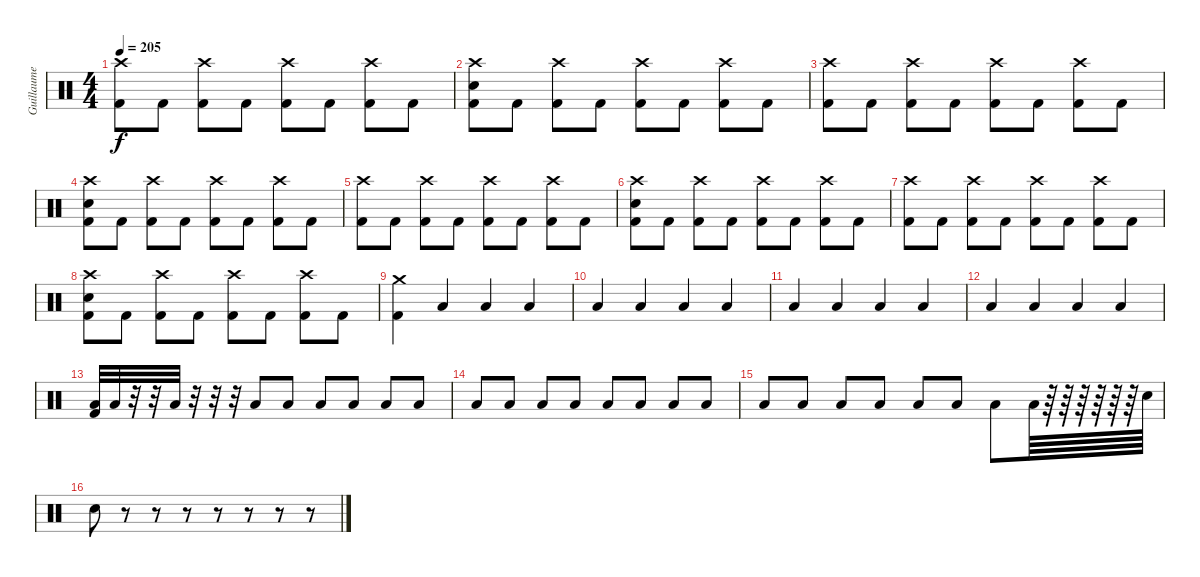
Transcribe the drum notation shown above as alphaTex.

\track ("Guillaume" "Guillaume") {instrument percussion}
\staff {score}
\articulation defaults
\ts (4 4)
\tempo 205
\clef neutral
\ks c
("Crash high (hit)" "Kick (hit) 2").8{dy f} "Kick (hit) 2".8 ("Crash high (hit)" "Kick (hit) 2").8 "Kick (hit) 2".8 ("Crash high (hit)" "Kick (hit) 2").8 "Kick (hit) 2".8 ("Crash high (hit)" "Kick (hit) 2").8 "Kick (hit) 2".8 |
("Crash high (hit)" "Snare (hit) 2" "Kick (hit) 2").8 "Kick (hit) 2".8 ("Crash high (hit)" "Kick (hit) 2").8 "Kick (hit) 2".8 ("Crash high (hit)" "Kick (hit) 2").8 "Kick (hit) 2".8 ("Crash high (hit)" "Kick (hit) 2").8 "Kick (hit) 2".8 |
("Crash high (hit)" "Kick (hit) 2").8 "Kick (hit) 2".8 ("Crash high (hit)" "Kick (hit) 2").8 "Kick (hit) 2".8 ("Crash high (hit)" "Kick (hit) 2").8 "Kick (hit) 2".8 ("Crash high (hit)" "Kick (hit) 2").8 "Kick (hit) 2".8 |
("Crash high (hit)" "Snare (hit) 2" "Kick (hit) 2").8 "Kick (hit) 2".8 ("Crash high (hit)" "Kick (hit) 2").8 "Kick (hit) 2".8 ("Crash high (hit)" "Kick (hit) 2").8 "Kick (hit) 2".8 ("Crash high (hit)" "Kick (hit) 2").8 "Kick (hit) 2".8 |
("Crash high (hit)" "Kick (hit) 2").8 "Kick (hit) 2".8 ("Crash high (hit)" "Kick (hit) 2").8 "Kick (hit) 2".8 ("Crash high (hit)" "Kick (hit) 2").8 "Kick (hit) 2".8 ("Crash high (hit)" "Kick (hit) 2").8 "Kick (hit) 2".8 |
("Crash high (hit)" "Snare (hit) 2" "Kick (hit) 2").8 "Kick (hit) 2".8 ("Crash high (hit)" "Kick (hit) 2").8 "Kick (hit) 2".8 ("Crash high (hit)" "Kick (hit) 2").8 "Kick (hit) 2".8 ("Crash high (hit)" "Kick (hit) 2").8 "Kick (hit) 2".8 |
("Crash high (hit)" "Kick (hit) 2").8 "Kick (hit) 2".8 ("Crash high (hit)" "Kick (hit) 2").8 "Kick (hit) 2".8 ("Crash high (hit)" "Kick (hit) 2").8 "Kick (hit) 2".8 ("Crash high (hit)" "Kick (hit) 2").8 "Kick (hit) 2".8 |
("Crash high (hit)" "Snare (hit) 2" "Kick (hit) 2").8 "Kick (hit) 2".8 ("Crash high (hit)" "Kick (hit) 2").8 "Kick (hit) 2".8 ("Crash high (hit)" "Kick (hit) 2").8 "Kick (hit) 2".8 ("Crash high (hit)" "Kick (hit) 2").8 "Kick (hit) 2".8 |
("Crash medium (hit)" "Kick (hit) 2").4 "Low Floor Tom (hit)".4 "Low Floor Tom (hit)".4 "Low Floor Tom (hit)".4 |
"Low Floor Tom (hit)".4 "Low Floor Tom (hit)".4 "Low Floor Tom (hit)".4 "Low Floor Tom (hit)".4 |
"Low Floor Tom (hit)".4 "Low Floor Tom (hit)".4 "Low Floor Tom (hit)".4 "Low Floor Tom (hit)".4 |
"Low Floor Tom (hit)".4 "Low Floor Tom (hit)".4 "Low Floor Tom (hit)".4 "Low Floor Tom (hit)".4 |
("Low Floor Tom (hit)" "Kick (hit) 2").32 "Low Floor Tom (hit)".32 r.32 r.32 "Low Floor Tom (hit)".32 r.32 r.32 r.32 "Low Floor Tom (hit)".8 "Low Floor Tom (hit)".8 "Low Floor Tom (hit)".8 "Low Floor Tom (hit)".8 "Low Floor Tom (hit)".8 "Low Floor Tom (hit)".8 |
"Low Floor Tom (hit)".8 "Low Floor Tom (hit)".8 "Low Floor Tom (hit)".8 "Low Floor Tom (hit)".8 "Low Floor Tom (hit)".8 "Low Floor Tom (hit)".8 "Low Floor Tom (hit)".8 "Low Floor Tom (hit)".8 |
"Low Floor Tom (hit)".8 "Low Floor Tom (hit)".8 "Low Floor Tom (hit)".8 "Low Floor Tom (hit)".8 "Low Floor Tom (hit)".8 "Low Floor Tom (hit)".8 "Low Floor Tom (hit)".8 "Low Floor Tom (hit)".64 r.64 r.64 r.64 r.64 r.64 r.64 "Snare (hit) 2".64 |
"Snare (hit) 2".8 r.8 r.8 r.8 r.8 r.8 r.8 r.8
